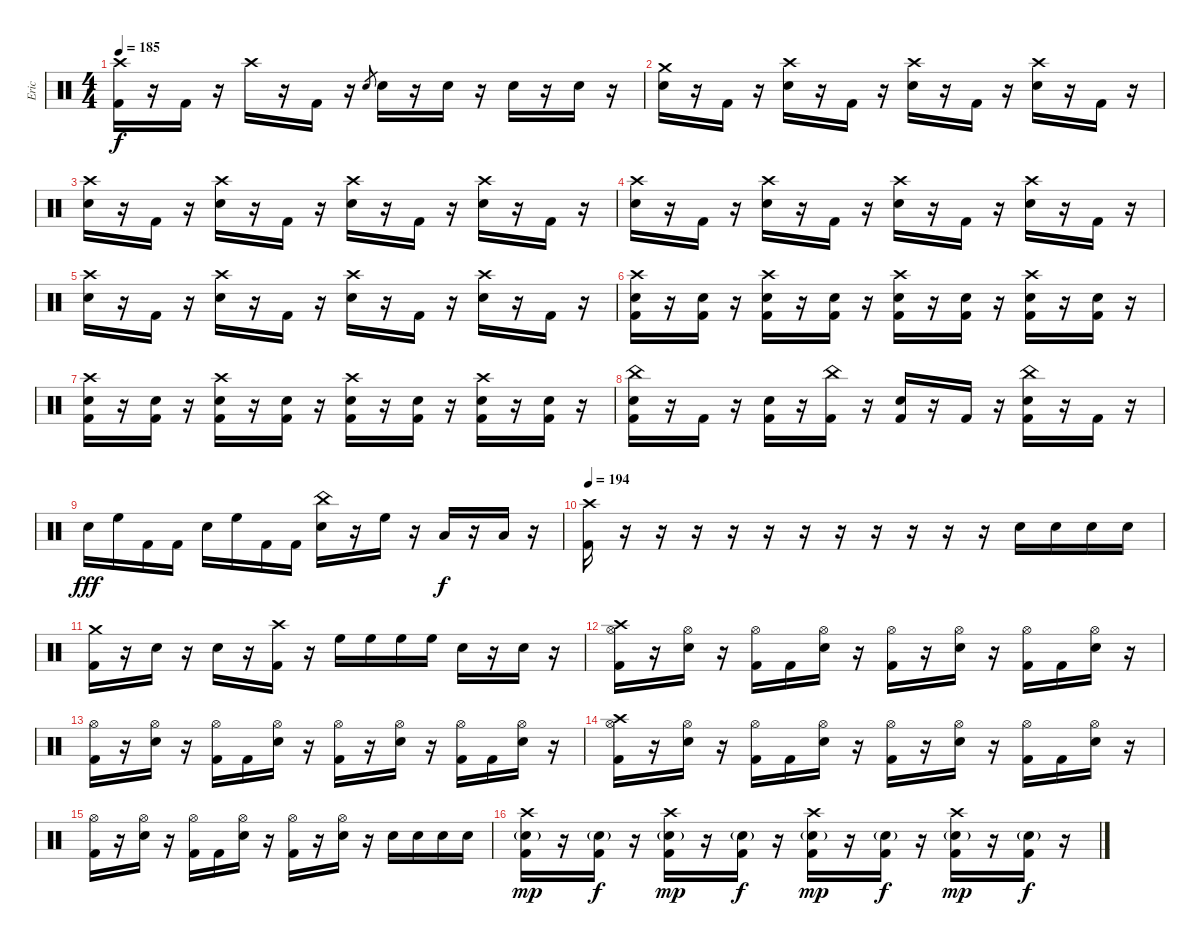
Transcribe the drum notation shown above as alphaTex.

\track ("Eric" "Eric") {instrument percussion}
\staff {score}
\articulation defaults
\ts (4 4)
\tempo 185
\clef neutral
\ks c
("Crash high (hit)" "Kick (hit) 2").16{dy f} r.16 "Kick (hit) 2".16 r.16 "Crash high (hit)".16 r.16 "Kick (hit) 2".16 r.16 "Electric Snare (hit)".8{gr} "Electric Snare (hit)".16 r.16 "Electric Snare (hit)".16 r.16 "Electric Snare (hit)".16 r.16 "Electric Snare (hit)".16 r.16 |
("Crash medium (hit)" "Electric Snare (hit)").16 r.16 "Kick (hit) 2".16 r.16 ("Crash high (hit)" "Electric Snare (hit)").16 r.16 "Kick (hit) 2".16 r.16 ("Crash high (hit)" "Electric Snare (hit)").16 r.16 "Kick (hit) 2".16 r.16 ("Crash high (hit)" "Electric Snare (hit)").16 r.16 "Kick (hit) 2".16 r.16 |
("Crash high (hit)" "Electric Snare (hit)").16 r.16 "Kick (hit) 2".16 r.16 ("Crash high (hit)" "Electric Snare (hit)").16 r.16 "Kick (hit) 2".16 r.16 ("Crash high (hit)" "Electric Snare (hit)").16 r.16 "Kick (hit) 2".16 r.16 ("Crash high (hit)" "Electric Snare (hit)").16 r.16 "Kick (hit) 2".16 r.16 |
("Crash high (hit)" "Electric Snare (hit)").16 r.16 "Kick (hit) 2".16 r.16 ("Crash high (hit)" "Electric Snare (hit)").16 r.16 "Kick (hit) 2".16 r.16 ("Crash high (hit)" "Electric Snare (hit)").16 r.16 "Kick (hit) 2".16 r.16 ("Crash high (hit)" "Electric Snare (hit)").16 r.16 "Kick (hit) 2".16 r.16 |
("Crash high (hit)" "Electric Snare (hit)").16 r.16 "Kick (hit) 2".16 r.16 ("Crash high (hit)" "Electric Snare (hit)").16 r.16 "Kick (hit) 2".16 r.16 ("Crash high (hit)" "Electric Snare (hit)").16 r.16 "Kick (hit) 2".16 r.16 ("Crash high (hit)" "Electric Snare (hit)").16 r.16 "Kick (hit) 2".16 r.16 |
("Crash high (hit)" "Electric Snare (hit)" "Kick (hit) 2").16 r.16 ("Electric Snare (hit)" "Kick (hit) 2").16 r.16 ("Crash high (hit)" "Electric Snare (hit)" "Kick (hit) 2").16 r.16 ("Electric Snare (hit)" "Kick (hit) 2").16 r.16 ("Crash high (hit)" "Electric Snare (hit)" "Kick (hit) 2").16 r.16 ("Electric Snare (hit)" "Kick (hit) 2").16 r.16 ("Crash high (hit)" "Electric Snare (hit)" "Kick (hit) 2").16 r.16 ("Electric Snare (hit)" "Kick (hit) 2").16 r.16 |
("Crash high (hit)" "Electric Snare (hit)" "Kick (hit) 2").16 r.16 ("Electric Snare (hit)" "Kick (hit) 2").16 r.16 ("Crash high (hit)" "Electric Snare (hit)" "Kick (hit) 2").16 r.16 ("Electric Snare (hit)" "Kick (hit) 2").16 r.16 ("Crash high (hit)" "Electric Snare (hit)" "Kick (hit) 2").16 r.16 ("Electric Snare (hit)" "Kick (hit) 2").16 r.16 ("Crash high (hit)" "Electric Snare (hit)" "Kick (hit) 2").16 r.16 ("Electric Snare (hit)" "Kick (hit) 2").16 r.16 |
("China (hit)" "Electric Snare (hit)" "Kick (hit) 2").16 r.16 "Kick (hit) 2".16 r.16 ("Electric Snare (hit)" "Kick (hit) 2").16 r.16 ("China (hit)" "Kick (hit) 2").16 r.16 ("Electric Snare (hit)" "Kick (hit) 2").16 r.16 "Kick (hit) 2".16 r.16 ("China (hit)" "Electric Snare (hit)" "Kick (hit) 2").16 r.16 "Kick (hit) 2".16 r.16 |
"Electric Snare (hit)".16{dy fff} "High Floor Tom (hit)".16 "Kick (hit) 2".16 "Kick (hit) 2".16 "Electric Snare (hit)".16 "High Floor Tom (hit)".16 "Kick (hit) 2".16 "Kick (hit) 2".16 ("China (hit)" "Electric Snare (hit)").16 r.16 "High Floor Tom (hit)".16 r.16 "Low Tom (hit)".16{dy f} r.16 "Low Floor Tom (hit)".16 r.16 |
\tempo 194
("Crash high (hit)" "Kick (hit) 2").16 r.16 r.16 r.16 r.16 r.16 r.16 r.16 r.16 r.16 r.16 r.16 "Electric Snare (hit)".16 "Electric Snare (hit)".16 "Electric Snare (hit)".16 "Electric Snare (hit)".16 |
("Crash medium (hit)" "Kick (hit) 2").16 r.16 "Electric Snare (hit)".16 r.16 "Electric Snare (hit)".16 r.16 ("Crash high (hit)" "Kick (hit) 2").16 r.16 "High Floor Tom (hit)".16 "High Floor Tom (hit)".16 "High Floor Tom (hit)".16 "High Floor Tom (hit)".16 "Electric Snare (hit)".16 r.16 "Electric Snare (hit)".16 r.16 |
("Crash high (hit)" "Hi-Hat (open)" "Kick (hit) 2").16 r.16 ("Hi-Hat (open)" "Electric Snare (hit)").16 r.16 ("Hi-Hat (open)" "Kick (hit) 2").16 "Kick (hit) 2".16 ("Hi-Hat (open)" "Electric Snare (hit)").16 r.16 ("Hi-Hat (open)" "Kick (hit) 2").16 r.16 ("Hi-Hat (open)" "Electric Snare (hit)").16 r.16 ("Hi-Hat (open)" "Kick (hit) 2").16 "Kick (hit) 2".16 ("Hi-Hat (open)" "Electric Snare (hit)").16 r.16 |
("Hi-Hat (open)" "Kick (hit) 2").16 r.16 ("Hi-Hat (open)" "Electric Snare (hit)").16 r.16 ("Hi-Hat (open)" "Kick (hit) 2").16 "Kick (hit) 2".16 ("Hi-Hat (open)" "Electric Snare (hit)").16 r.16 ("Hi-Hat (open)" "Kick (hit) 2").16 r.16 ("Hi-Hat (open)" "Electric Snare (hit)").16 r.16 ("Hi-Hat (open)" "Kick (hit) 2").16 "Kick (hit) 2".16 ("Hi-Hat (open)" "Electric Snare (hit)").16 r.16 |
("Crash high (hit)" "Hi-Hat (open)" "Kick (hit) 2").16 r.16 ("Hi-Hat (open)" "Electric Snare (hit)").16 r.16 ("Hi-Hat (open)" "Kick (hit) 2").16 "Kick (hit) 2".16 ("Hi-Hat (open)" "Electric Snare (hit)").16 r.16 ("Hi-Hat (open)" "Kick (hit) 2").16 r.16 ("Hi-Hat (open)" "Electric Snare (hit)").16 r.16 ("Hi-Hat (open)" "Kick (hit) 2").16 "Kick (hit) 2".16 ("Hi-Hat (open)" "Electric Snare (hit)").16 r.16 |
("Hi-Hat (open)" "Kick (hit) 2").16 r.16 ("Hi-Hat (open)" "Electric Snare (hit)").16 r.16 ("Hi-Hat (open)" "Kick (hit) 2").16 "Kick (hit) 2".16 ("Hi-Hat (open)" "Electric Snare (hit)").16 r.16 ("Hi-Hat (open)" "Kick (hit) 2").16 r.16 ("Hi-Hat (open)" "Electric Snare (hit)").16 r.16 "Electric Snare (hit)".16 "Electric Snare (hit)".16 "Electric Snare (hit)".16 "Electric Snare (hit)".16 |
("Crash high (hit)" "Electric Snare (hit)"{g} "Kick (hit) 2").16{dy mp} r.16 ("Electric Snare (hit)"{g} "Kick (hit) 2").16{dy f} r.16 ("Crash high (hit)" "Electric Snare (hit)"{g} "Kick (hit) 2").16{dy mp} r.16 ("Electric Snare (hit)"{g} "Kick (hit) 2").16{dy f} r.16 ("Crash high (hit)" "Electric Snare (hit)"{g} "Kick (hit) 2").16{dy mp} r.16 ("Electric Snare (hit)"{g} "Kick (hit) 2").16{dy f} r.16 ("Crash high (hit)" "Electric Snare (hit)"{g} "Kick (hit) 2").16{dy mp} r.16 ("Electric Snare (hit)"{g} "Kick (hit) 2").16{dy f} r.16
